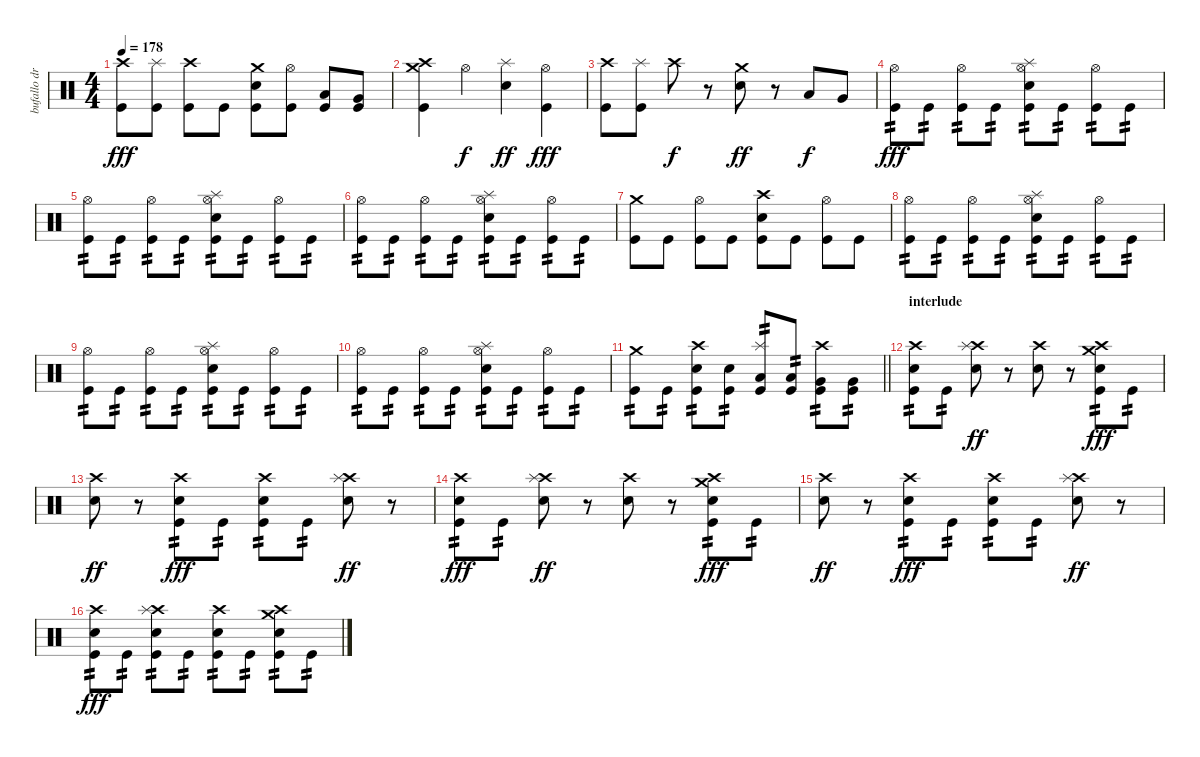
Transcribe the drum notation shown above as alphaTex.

\track ("bufallo drums" "bufallo dr") {instrument percussion}
\staff {score}
\articulation defaults
\ts (4 4)
\tempo 178
\clef neutral
\ks c
("Crash high (hit)" "Kick (hit)").8{dy fff} ("Splash (hit)" "Kick (hit)").8 ("Crash high (hit)" "Kick (hit)").8 "Kick (hit)".8 ("Crash medium (hit)" "Electric Snare (hit)" "Kick (hit)").8 ("Hi-Hat (open)" "Kick (hit)").8 ("Low Tom (hit)" "Kick (hit)").8 ("Very Low Tom (hit)" "Kick (hit)").8 |
("Crash medium (hit)" "Crash high (hit)" "Kick (hit)").4 "Hi-Hat (open)".4{dy f} ("Splash (hit)" "Electric Snare (hit)").4{dy ff} ("Hi-Hat (open)" "Kick (hit)").4{dy fff} |
("Crash high (hit)" "Kick (hit)").8 ("Splash (hit)" "Kick (hit)").8 "Crash high (hit)".8{dy f} r.8 ("Crash medium (hit)" "Electric Snare (hit)").8{dy ff} r.8 "Low Tom (hit)".8{dy f} "Very Low Tom (hit)".8 |
("Hi-Hat (open)" "Kick (hit)").8{tp 2 dy fff} "Kick (hit)".8{tp 2} ("Hi-Hat (open)" "Kick (hit)").8{tp 2} "Kick (hit)".8{tp 2} ("Hi-Hat (open)" "Splash (hit)" "Electric Snare (hit)" "Kick (hit)").8{tp 2} "Kick (hit)".8{tp 2} ("Hi-Hat (open)" "Kick (hit)").8{tp 2} "Kick (hit)".8{tp 2} |
("Hi-Hat (open)" "Kick (hit)").8{tp 2} "Kick (hit)".8{tp 2} ("Hi-Hat (open)" "Kick (hit)").8{tp 2} "Kick (hit)".8{tp 2} ("Hi-Hat (open)" "Splash (hit)" "Electric Snare (hit)" "Kick (hit)").8{tp 2} "Kick (hit)".8{tp 2} ("Hi-Hat (open)" "Kick (hit)").8{tp 2} "Kick (hit)".8{tp 2} |
("Hi-Hat (open)" "Kick (hit)").8{tp 2} "Kick (hit)".8{tp 2} ("Hi-Hat (open)" "Kick (hit)").8{tp 2} "Kick (hit)".8{tp 2} ("Hi-Hat (open)" "Splash (hit)" "Electric Snare (hit)" "Kick (hit)").8{tp 2} "Kick (hit)".8{tp 2} ("Hi-Hat (open)" "Kick (hit)").8{tp 2} "Kick (hit)".8{tp 2} |
("Crash medium (hit)" "Kick (hit)").8 "Kick (hit)".8 ("Hi-Hat (open)" "Kick (hit)").8 "Kick (hit)".8 ("Electric Snare (hit)" "Crash high (hit)" "Kick (hit)").8 "Kick (hit)".8 ("Hi-Hat (open)" "Kick (hit)").8 "Kick (hit)".8 |
("Hi-Hat (open)" "Kick (hit)").8{tp 2} "Kick (hit)".8{tp 2} ("Hi-Hat (open)" "Kick (hit)").8{tp 2} "Kick (hit)".8{tp 2} ("Hi-Hat (open)" "Splash (hit)" "Electric Snare (hit)" "Kick (hit)").8{tp 2} "Kick (hit)".8{tp 2} ("Hi-Hat (open)" "Kick (hit)").8{tp 2} "Kick (hit)".8{tp 2} |
("Hi-Hat (open)" "Kick (hit)").8{tp 2} "Kick (hit)".8{tp 2} ("Hi-Hat (open)" "Kick (hit)").8{tp 2} "Kick (hit)".8{tp 2} ("Hi-Hat (open)" "Splash (hit)" "Electric Snare (hit)" "Kick (hit)").8{tp 2} "Kick (hit)".8{tp 2} ("Hi-Hat (open)" "Kick (hit)").8{tp 2} "Kick (hit)".8{tp 2} |
("Hi-Hat (open)" "Kick (hit)").8{tp 2} "Kick (hit)".8{tp 2} ("Hi-Hat (open)" "Kick (hit)").8{tp 2} "Kick (hit)".8{tp 2} ("Hi-Hat (open)" "Splash (hit)" "Electric Snare (hit)" "Kick (hit)").8{tp 2} "Kick (hit)".8{tp 2} ("Hi-Hat (open)" "Kick (hit)").8{tp 2} "Kick (hit)".8{tp 2} |
\barLineRight lightlight
("Crash medium (hit)" "Kick (hit)").8{tp 2} "Kick (hit)".8{tp 2} ("Crash high (hit)" "Electric Snare (hit)" "Kick (hit)").8{tp 2} ("Electric Snare (hit)" "Kick (hit)").8{tp 2} ("Splash (hit)" "Low Tom (hit)" "Kick (hit)").8{tp 2} ("Low Tom (hit)" "Kick (hit)").8{tp 2} ("Crash high (hit)" "Very Low Tom (hit)" "Kick (hit)").8{tp 2} ("Very Low Tom (hit)" "Kick (hit)").8{tp 2} |
\section ("" "interlude")
("Crash high (hit)" "Electric Snare (hit)" "Kick (hit)").8{tp 2} "Kick (hit)".8{tp 2} ("Crash high (hit)" "Splash (hit)" "Electric Snare (hit)").8{dy ff} r.8 ("Crash high (hit)" "Electric Snare (hit)").8 r.8 ("Crash high (hit)" "Crash medium (hit)" "Electric Snare (hit)" "Kick (hit)").8{tp 2 dy fff} "Kick (hit)".8{tp 2} |
("Crash high (hit)" "Electric Snare (hit)").8{dy ff} r.8 ("Crash high (hit)" "Electric Snare (hit)" "Kick (hit)").8{tp 2 dy fff} "Kick (hit)".8{tp 2} ("Crash high (hit)" "Electric Snare (hit)" "Kick (hit)").8{tp 2} "Kick (hit)".8{tp 2} ("Crash high (hit)" "Splash (hit)" "Electric Snare (hit)").8{dy ff} r.8 |
("Crash high (hit)" "Electric Snare (hit)" "Kick (hit)").8{tp 2 dy fff} "Kick (hit)".8{tp 2} ("Crash high (hit)" "Splash (hit)" "Electric Snare (hit)").8{dy ff} r.8 ("Crash high (hit)" "Electric Snare (hit)").8 r.8 ("Crash high (hit)" "Crash medium (hit)" "Electric Snare (hit)" "Kick (hit)").8{tp 2 dy fff} "Kick (hit)".8{tp 2} |
("Crash high (hit)" "Electric Snare (hit)").8{dy ff} r.8 ("Crash high (hit)" "Electric Snare (hit)" "Kick (hit)").8{tp 2 dy fff} "Kick (hit)".8{tp 2} ("Crash high (hit)" "Electric Snare (hit)" "Kick (hit)").8{tp 2} "Kick (hit)".8{tp 2} ("Crash high (hit)" "Splash (hit)" "Electric Snare (hit)").8{dy ff} r.8 |
("Crash high (hit)" "Electric Snare (hit)" "Kick (hit)").8{tp 2 dy fff} "Kick (hit)".8{tp 2} ("Crash high (hit)" "Splash (hit)" "Electric Snare (hit)" "Kick (hit)").8{tp 2} "Kick (hit)".8{tp 2} ("Crash high (hit)" "Electric Snare (hit)" "Kick (hit)").8{tp 2} "Kick (hit)".8{tp 2} ("Crash high (hit)" "Crash medium (hit)" "Electric Snare (hit)" "Kick (hit)").8{tp 2} "Kick (hit)".8{tp 2}
